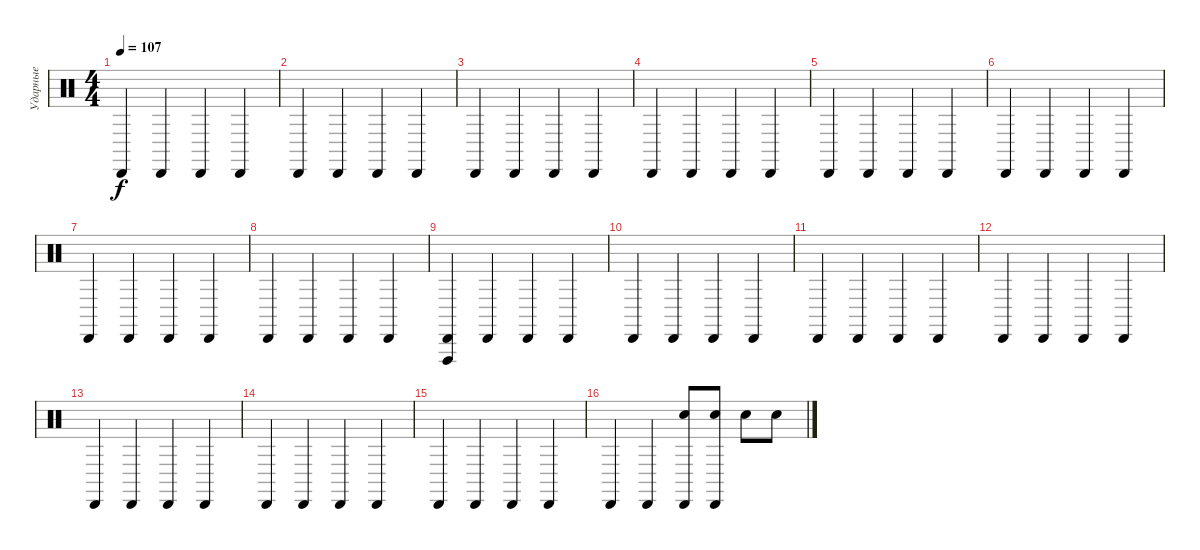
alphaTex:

\track ("Ударные" "Ударные") {instrument percussion}
\staff {score}
\articulation defaults
\ts (4 4)
\tempo 107
\clef neutral
\ks c "Cabasa (hit)".4{dy f} "Cabasa (hit)".4 "Cabasa (hit)".4 "Cabasa (hit)".4
|
"Cabasa (hit)".4 "Cabasa (hit)".4 "Cabasa (hit)".4 "Cabasa (hit)".4 |
"Cabasa (hit)".4 "Cabasa (hit)".4 "Cabasa (hit)".4 "Cabasa (hit)".4 |
"Cabasa (hit)".4 "Cabasa (hit)".4 "Cabasa (hit)".4 "Cabasa (hit)".4 |
"Cabasa (hit)".4 "Cabasa (hit)".4 "Cabasa (hit)".4 "Cabasa (hit)".4 |
"Cabasa (hit)".4 "Cabasa (hit)".4 "Cabasa (hit)".4 "Cabasa (hit)".4 |
"Cabasa (hit)".4 "Cabasa (hit)".4 "Cabasa (hit)".4 "Cabasa (hit)".4 |
"Cabasa (hit)".4 "Cabasa (hit)".4 "Cabasa (hit)".4 "Cabasa (hit)".4 |
("Cabasa (hit)" "Vibraslap (hit)").4 "Cabasa (hit)".4 "Cabasa (hit)".4 "Cabasa (hit)".4 |
"Cabasa (hit)".4 "Cabasa (hit)".4 "Cabasa (hit)".4 "Cabasa (hit)".4 |
"Cabasa (hit)".4 "Cabasa (hit)".4 "Cabasa (hit)".4 "Cabasa (hit)".4 |
"Cabasa (hit)".4 "Cabasa (hit)".4 "Cabasa (hit)".4 "Cabasa (hit)".4 |
"Cabasa (hit)".4 "Cabasa (hit)".4 "Cabasa (hit)".4 "Cabasa (hit)".4 |
"Cabasa (hit)".4 "Cabasa (hit)".4 "Cabasa (hit)".4 "Cabasa (hit)".4 |
"Cabasa (hit)".4 "Cabasa (hit)".4 "Cabasa (hit)".4 "Cabasa (hit)".4 |
"Cabasa (hit)".4 "Cabasa (hit)".4 ("Cabasa (hit)" "Electric Snare (hit)").8 ("Cabasa (hit)" "Electric Snare (hit)").8 "Electric Snare (hit)".8 "Electric Snare (hit)".8
